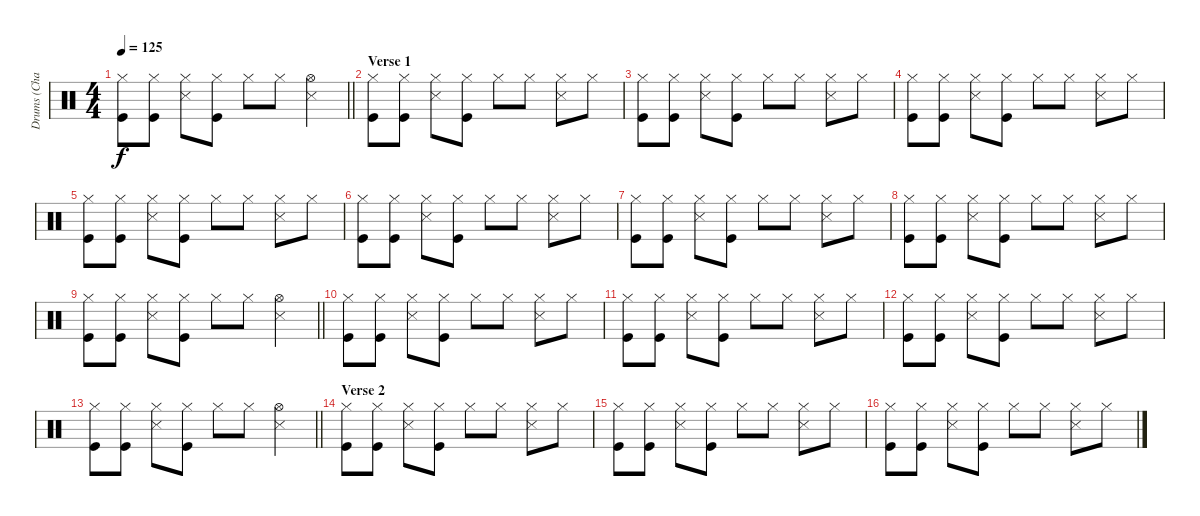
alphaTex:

\track ("Drums (Chad Smith)" "Drums (Cha") {instrument percussion}
\staff {score}
\articulation defaults
\ts (4 4)
\tempo 125
\clef neutral
\barLineRight lightlight
\ks c
("Hi-Hat (closed)" "Kick (hit)").8{dy f} ("Hi-Hat (closed)" "Kick (hit)").8 ("Hi-Hat (closed)" "Snare (side stick) 3").8 ("Hi-Hat (closed)" "Kick (hit)").8 "Hi-Hat (closed)".8 "Hi-Hat (closed)".8 ("Hi-Hat (open)" "Snare (side stick) 3").4 |
\section ("" "Verse 1")
("Hi-Hat (closed)" "Kick (hit)").8 ("Hi-Hat (closed)" "Kick (hit)").8 ("Hi-Hat (closed)" "Snare (side stick) 3").8 ("Hi-Hat (closed)" "Kick (hit)").8 "Hi-Hat (closed)".8 "Hi-Hat (closed)".8 ("Hi-Hat (closed)" "Snare (side stick) 3").8 "Hi-Hat (closed)".8 |
("Hi-Hat (closed)" "Kick (hit)").8 ("Hi-Hat (closed)" "Kick (hit)").8 ("Hi-Hat (closed)" "Snare (side stick) 3").8 ("Hi-Hat (closed)" "Kick (hit)").8 "Hi-Hat (closed)".8 "Hi-Hat (closed)".8 ("Hi-Hat (closed)" "Snare (side stick) 3").8 "Hi-Hat (closed)".8 |
("Hi-Hat (closed)" "Kick (hit)").8 ("Hi-Hat (closed)" "Kick (hit)").8 ("Hi-Hat (closed)" "Snare (side stick) 3").8 ("Hi-Hat (closed)" "Kick (hit)").8 "Hi-Hat (closed)".8 "Hi-Hat (closed)".8 ("Hi-Hat (closed)" "Snare (side stick) 3").8 "Hi-Hat (closed)".8 |
("Hi-Hat (closed)" "Kick (hit)").8 ("Hi-Hat (closed)" "Kick (hit)").8 ("Hi-Hat (closed)" "Snare (side stick) 3").8 ("Hi-Hat (closed)" "Kick (hit)").8 "Hi-Hat (closed)".8 "Hi-Hat (closed)".8 ("Hi-Hat (closed)" "Snare (side stick) 3").8 "Hi-Hat (closed)".8 |
("Hi-Hat (closed)" "Kick (hit)").8 ("Hi-Hat (closed)" "Kick (hit)").8 ("Hi-Hat (closed)" "Snare (side stick) 3").8 ("Hi-Hat (closed)" "Kick (hit)").8 "Hi-Hat (closed)".8 "Hi-Hat (closed)".8 ("Hi-Hat (closed)" "Snare (side stick) 3").8 "Hi-Hat (closed)".8 |
("Hi-Hat (closed)" "Kick (hit)").8 ("Hi-Hat (closed)" "Kick (hit)").8 ("Hi-Hat (closed)" "Snare (side stick) 3").8 ("Hi-Hat (closed)" "Kick (hit)").8 "Hi-Hat (closed)".8 "Hi-Hat (closed)".8 ("Hi-Hat (closed)" "Snare (side stick) 3").8 "Hi-Hat (closed)".8 |
("Hi-Hat (closed)" "Kick (hit)").8 ("Hi-Hat (closed)" "Kick (hit)").8 ("Hi-Hat (closed)" "Snare (side stick) 3").8 ("Hi-Hat (closed)" "Kick (hit)").8 "Hi-Hat (closed)".8 "Hi-Hat (closed)".8 ("Hi-Hat (closed)" "Snare (side stick) 3").8 "Hi-Hat (closed)".8 |
\barLineRight lightlight
("Hi-Hat (closed)" "Kick (hit)").8 ("Hi-Hat (closed)" "Kick (hit)").8 ("Hi-Hat (closed)" "Snare (side stick) 3").8 ("Hi-Hat (closed)" "Kick (hit)").8 "Hi-Hat (closed)".8 "Hi-Hat (closed)".8 ("Hi-Hat (open)" "Snare (side stick) 3").4 |
\section ("" "")
("Hi-Hat (closed)" "Kick (hit)").8 ("Hi-Hat (closed)" "Kick (hit)").8 ("Hi-Hat (closed)" "Snare (side stick) 3").8 ("Hi-Hat (closed)" "Kick (hit)").8 "Hi-Hat (closed)".8 "Hi-Hat (closed)".8 ("Hi-Hat (closed)" "Snare (side stick) 3").8 "Hi-Hat (closed)".8 |
("Hi-Hat (closed)" "Kick (hit)").8 ("Hi-Hat (closed)" "Kick (hit)").8 ("Hi-Hat (closed)" "Snare (side stick) 3").8 ("Hi-Hat (closed)" "Kick (hit)").8 "Hi-Hat (closed)".8 "Hi-Hat (closed)".8 ("Hi-Hat (closed)" "Snare (side stick) 3").8 "Hi-Hat (closed)".8 |
("Hi-Hat (closed)" "Kick (hit)").8 ("Hi-Hat (closed)" "Kick (hit)").8 ("Hi-Hat (closed)" "Snare (side stick) 3").8 ("Hi-Hat (closed)" "Kick (hit)").8 "Hi-Hat (closed)".8 "Hi-Hat (closed)".8 ("Hi-Hat (closed)" "Snare (side stick) 3").8 "Hi-Hat (closed)".8 |
\barLineRight lightlight
("Hi-Hat (closed)" "Kick (hit)").8 ("Hi-Hat (closed)" "Kick (hit)").8 ("Hi-Hat (closed)" "Snare (side stick) 3").8 ("Hi-Hat (closed)" "Kick (hit)").8 "Hi-Hat (closed)".8 "Hi-Hat (closed)".8 ("Hi-Hat (open)" "Snare (side stick) 3").4 |
\section ("" "Verse 2")
("Hi-Hat (closed)" "Kick (hit)").8 ("Hi-Hat (closed)" "Kick (hit)").8 ("Hi-Hat (closed)" "Snare (side stick) 3").8 ("Hi-Hat (closed)" "Kick (hit)").8 "Hi-Hat (closed)".8 "Hi-Hat (closed)".8 ("Hi-Hat (closed)" "Snare (side stick) 3").8 "Hi-Hat (closed)".8 |
("Hi-Hat (closed)" "Kick (hit)").8 ("Hi-Hat (closed)" "Kick (hit)").8 ("Hi-Hat (closed)" "Snare (side stick) 3").8 ("Hi-Hat (closed)" "Kick (hit)").8 "Hi-Hat (closed)".8 "Hi-Hat (closed)".8 ("Hi-Hat (closed)" "Snare (side stick) 3").8 "Hi-Hat (closed)".8 |
("Hi-Hat (closed)" "Kick (hit)").8 ("Hi-Hat (closed)" "Kick (hit)").8 ("Hi-Hat (closed)" "Snare (side stick) 3").8 ("Hi-Hat (closed)" "Kick (hit)").8 "Hi-Hat (closed)".8 "Hi-Hat (closed)".8 ("Hi-Hat (closed)" "Snare (side stick) 3").8 "Hi-Hat (closed)".8
